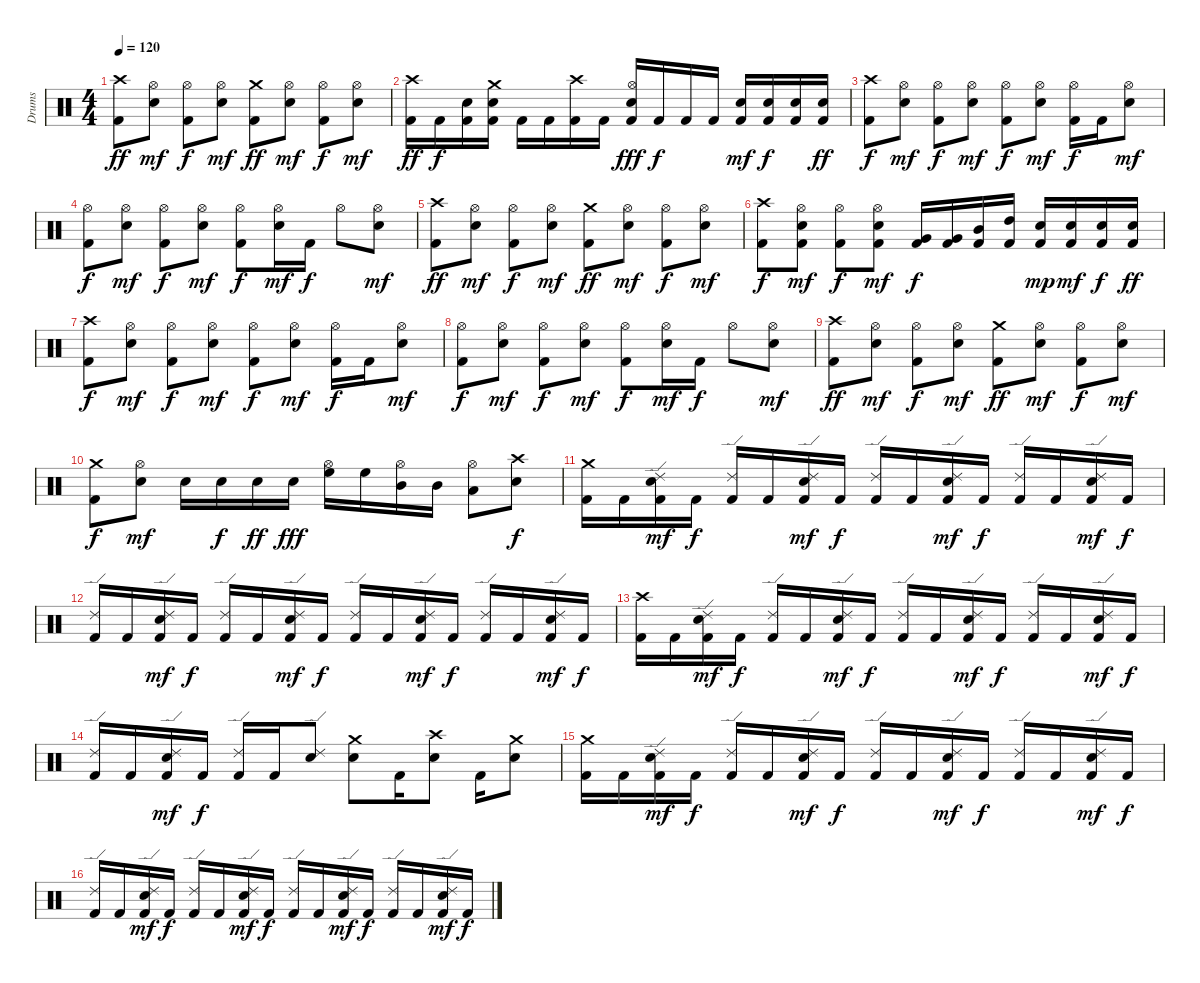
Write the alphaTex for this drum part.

\track ("Drums" "Drums") {instrument percussion}
\staff {score}
\articulation defaults
\ts (4 4)
\tempo 120
\clef neutral
\ks c
("Crash high (hit)" "Kick (hit) 2").8{dy ff} ("Hi-Hat (open)" "Snare (hit) 2").8{dy mf} ("Hi-Hat (open)" "Kick (hit) 2").8{dy f} ("Hi-Hat (open)" "Snare (hit) 2").8{dy mf} ("Crash medium (hit)" "Kick (hit) 2").8{dy ff} ("Hi-Hat (open)" "Snare (hit) 2").8{dy mf} ("Hi-Hat (open)" "Kick (hit) 2").8{dy f} ("Hi-Hat (open)" "Snare (hit) 2").8{dy mf} |
("Crash high (hit)" "Kick (hit) 2").16{dy ff} "Kick (hit) 2".16{dy f} ("Snare (hit) 2" "Kick (hit) 2").16 ("Crash medium (hit)" "Snare (hit) 2" "Kick (hit) 2").16 "Kick (hit) 2".16 "Kick (hit) 2".16 ("Crash high (hit)" "Kick (hit) 2").16 "Kick (hit) 2".16 ("Hi-Hat (open)" "Snare (hit) 2" "Kick (hit) 2").16{dy fff} "Kick (hit) 2".16{dy f} "Kick (hit) 2".16 "Kick (hit) 2".16 ("Snare (hit) 2" "Kick (hit) 2").16{dy mf} ("Snare (hit) 2" "Kick (hit) 2").16{dy f} ("Snare (hit) 2" "Kick (hit) 2").16 ("Snare (hit) 2" "Kick (hit) 2").16{dy ff} |
("Crash high (hit)" "Kick (hit) 2").8{dy f} ("Hi-Hat (open)" "Snare (hit) 2").8{dy mf} ("Hi-Hat (open)" "Kick (hit) 2").8{dy f} ("Hi-Hat (open)" "Snare (hit) 2").8{dy mf} ("Hi-Hat (open)" "Kick (hit) 2").8{dy f} ("Hi-Hat (open)" "Snare (hit) 2").8{dy mf} ("Hi-Hat (open)" "Kick (hit) 2").16{dy f} "Kick (hit) 2".16 ("Hi-Hat (open)" "Snare (hit) 2").8{dy mf} |
("Hi-Hat (open)" "Kick (hit) 2").8{dy f} ("Hi-Hat (open)" "Snare (hit) 2").8{dy mf} ("Hi-Hat (open)" "Kick (hit) 2").8{dy f} ("Hi-Hat (open)" "Snare (hit) 2").8{dy mf} ("Hi-Hat (open)" "Kick (hit) 2").8{dy f} ("Hi-Hat (open)" "Snare (hit) 2").16{dy mf} "Kick (hit) 2".16{dy f} "Hi-Hat (open)".8 ("Hi-Hat (open)" "Snare (hit) 2").8{dy mf} |
("Crash high (hit)" "Kick (hit) 2").8{dy ff} ("Hi-Hat (open)" "Snare (hit) 2").8{dy mf} ("Hi-Hat (open)" "Kick (hit) 2").8{dy f} ("Hi-Hat (open)" "Snare (hit) 2").8{dy mf} ("Crash medium (hit)" "Kick (hit) 2").8{dy ff} ("Hi-Hat (open)" "Snare (hit) 2").8{dy mf} ("Hi-Hat (open)" "Kick (hit) 2").8{dy f} ("Hi-Hat (open)" "Snare (hit) 2").8{dy mf} |
("Crash high (hit)" "Kick (hit) 2").8{dy f} ("Hi-Hat (open)" "Snare (hit) 2" "Kick (hit) 2").8{dy mf} ("Hi-Hat (open)" "Kick (hit) 2").8{dy f} ("Hi-Hat (open)" "Snare (hit) 2" "Kick (hit) 2").8{dy mf} ("Very Low Tom (hit)" "Kick (hit) 2").16{dy f} ("Very Low Tom (hit)" "Kick (hit) 2").16 ("Mid Tom (hit)" "Kick (hit) 2").16 ("High Tom (hit)" "Kick (hit) 2").16 ("Snare (hit) 2" "Kick (hit) 2").16{dy mp} ("Snare (hit) 2" "Kick (hit) 2").16{dy mf} ("Snare (hit) 2" "Kick (hit) 2").16{dy f} ("Snare (hit) 2" "Kick (hit) 2").16{dy ff} |
("Crash high (hit)" "Kick (hit) 2").8{dy f} ("Hi-Hat (open)" "Snare (hit) 2").8{dy mf} ("Hi-Hat (open)" "Kick (hit) 2").8{dy f} ("Hi-Hat (open)" "Snare (hit) 2").8{dy mf} ("Hi-Hat (open)" "Kick (hit) 2").8{dy f} ("Hi-Hat (open)" "Snare (hit) 2").8{dy mf} ("Hi-Hat (open)" "Kick (hit) 2").16{dy f} "Kick (hit) 2".16 ("Hi-Hat (open)" "Snare (hit) 2").8{dy mf} |
("Hi-Hat (open)" "Kick (hit) 2").8{dy f} ("Hi-Hat (open)" "Snare (hit) 2").8{dy mf} ("Hi-Hat (open)" "Kick (hit) 2").8{dy f} ("Hi-Hat (open)" "Snare (hit) 2").8{dy mf} ("Hi-Hat (open)" "Kick (hit) 2").8{dy f} ("Hi-Hat (open)" "Snare (hit) 2").16{dy mf} "Kick (hit) 2".16{dy f} "Hi-Hat (open)".8 ("Hi-Hat (open)" "Snare (hit) 2").8{dy mf} |
("Crash high (hit)" "Kick (hit) 2").8{dy ff} ("Hi-Hat (open)" "Snare (hit) 2").8{dy mf} ("Hi-Hat (open)" "Kick (hit) 2").8{dy f} ("Hi-Hat (open)" "Snare (hit) 2").8{dy mf} ("Crash medium (hit)" "Kick (hit) 2").8{dy ff} ("Hi-Hat (open)" "Snare (hit) 2").8{dy mf} ("Hi-Hat (open)" "Kick (hit) 2").8{dy f} ("Hi-Hat (open)" "Snare (hit) 2").8{dy mf} |
("Crash medium (hit)" "Kick (hit) 2").8{dy f} ("Hi-Hat (open)" "Snare (hit) 2").8{dy mf} "Snare (hit) 2".16 "Snare (hit) 2".16{dy f} "Snare (hit) 2".16{dy ff} "Snare (hit) 2".16{dy fff} ("Hi-Hat (open)" "High Floor Tom (hit)").16 "High Floor Tom (hit)".16 ("Hi-Hat (open)" "Mid Tom (hit)").16 "Mid Tom (hit)".16 ("Hi-Hat (open)" "Low Tom (hit)").8 ("Crash high (hit)" "Snare (hit) 2").8{dy f} |
("Crash medium (hit)" "Kick (hit) 2").16 "Kick (hit) 2".16 ("Ride (edge) 2" "Snare (hit) 2" "Kick (hit) 2").16{dy mf} "Kick (hit) 2".16{dy f} ("Ride (edge) 2" "Kick (hit) 2").16 "Kick (hit) 2".16 ("Ride (edge) 2" "Snare (hit) 2" "Kick (hit) 2").16{dy mf} "Kick (hit) 2".16{dy f} ("Ride (edge) 2" "Kick (hit) 2").16 "Kick (hit) 2".16 ("Ride (edge) 2" "Snare (hit) 2" "Kick (hit) 2").16{dy mf} "Kick (hit) 2".16{dy f} ("Ride (edge) 2" "Kick (hit) 2").16 "Kick (hit) 2".16 ("Ride (edge) 2" "Snare (hit) 2" "Kick (hit) 2").16{dy mf} "Kick (hit) 2".16{dy f} |
("Ride (edge) 2" "Kick (hit) 2").16 "Kick (hit) 2".16 ("Ride (edge) 2" "Snare (hit) 2" "Kick (hit) 2").16{dy mf} "Kick (hit) 2".16{dy f} ("Ride (edge) 2" "Kick (hit) 2").16 "Kick (hit) 2".16 ("Ride (edge) 2" "Snare (hit) 2" "Kick (hit) 2").16{dy mf} "Kick (hit) 2".16{dy f} ("Ride (edge) 2" "Kick (hit) 2").16 "Kick (hit) 2".16 ("Ride (edge) 2" "Snare (hit) 2" "Kick (hit) 2").16{dy mf} "Kick (hit) 2".16{dy f} ("Ride (edge) 2" "Kick (hit) 2").16 "Kick (hit) 2".16 ("Ride (edge) 2" "Snare (hit) 2" "Kick (hit) 2").16{dy mf} "Kick (hit) 2".16{dy f} |
("Crash high (hit)" "Kick (hit) 2").16 "Kick (hit) 2".16 ("Ride (edge) 2" "Snare (hit) 2" "Kick (hit) 2").16{dy mf} "Kick (hit) 2".16{dy f} ("Ride (edge) 2" "Kick (hit) 2").16 "Kick (hit) 2".16 ("Ride (edge) 2" "Snare (hit) 2" "Kick (hit) 2").16{dy mf} "Kick (hit) 2".16{dy f} ("Ride (edge) 2" "Kick (hit) 2").16 "Kick (hit) 2".16 ("Ride (edge) 2" "Snare (hit) 2" "Kick (hit) 2").16{dy mf} "Kick (hit) 2".16{dy f} ("Ride (edge) 2" "Kick (hit) 2").16 "Kick (hit) 2".16 ("Ride (edge) 2" "Snare (hit) 2" "Kick (hit) 2").16{dy mf} "Kick (hit) 2".16{dy f} |
("Ride (edge) 2" "Kick (hit) 2").16 "Kick (hit) 2".16 ("Ride (edge) 2" "Snare (hit) 2" "Kick (hit) 2").16{dy mf} "Kick (hit) 2".16{dy f} ("Ride (edge) 2" "Kick (hit) 2").16 "Kick (hit) 2".16 ("Ride (edge) 2" "Snare (hit) 2").8 ("Crash medium (hit)" "Snare (hit) 2").8 "Kick (hit) 2".16 ("Crash high (hit)" "Snare (hit) 2").8 "Kick (hit) 2".16 ("Crash medium (hit)" "Snare (hit) 2").8 |
("Crash medium (hit)" "Kick (hit) 2").16 "Kick (hit) 2".16 ("Ride (edge) 2" "Snare (hit) 2" "Kick (hit) 2").16{dy mf} "Kick (hit) 2".16{dy f} ("Ride (edge) 2" "Kick (hit) 2").16 "Kick (hit) 2".16 ("Ride (edge) 2" "Snare (hit) 2" "Kick (hit) 2").16{dy mf} "Kick (hit) 2".16{dy f} ("Ride (edge) 2" "Kick (hit) 2").16 "Kick (hit) 2".16 ("Ride (edge) 2" "Snare (hit) 2" "Kick (hit) 2").16{dy mf} "Kick (hit) 2".16{dy f} ("Ride (edge) 2" "Kick (hit) 2").16 "Kick (hit) 2".16 ("Ride (edge) 2" "Snare (hit) 2" "Kick (hit) 2").16{dy mf} "Kick (hit) 2".16{dy f} |
("Ride (edge) 2" "Kick (hit) 2").16 "Kick (hit) 2".16 ("Ride (edge) 2" "Snare (hit) 2" "Kick (hit) 2").16{dy mf} "Kick (hit) 2".16{dy f} ("Ride (edge) 2" "Kick (hit) 2").16 "Kick (hit) 2".16 ("Ride (edge) 2" "Snare (hit) 2" "Kick (hit) 2").16{dy mf} "Kick (hit) 2".16{dy f} ("Ride (edge) 2" "Kick (hit) 2").16 "Kick (hit) 2".16 ("Ride (edge) 2" "Snare (hit) 2" "Kick (hit) 2").16{dy mf} "Kick (hit) 2".16{dy f} ("Ride (edge) 2" "Kick (hit) 2").16 "Kick (hit) 2".16 ("Ride (edge) 2" "Snare (hit) 2" "Kick (hit) 2").16{dy mf} "Kick (hit) 2".16{dy f}
